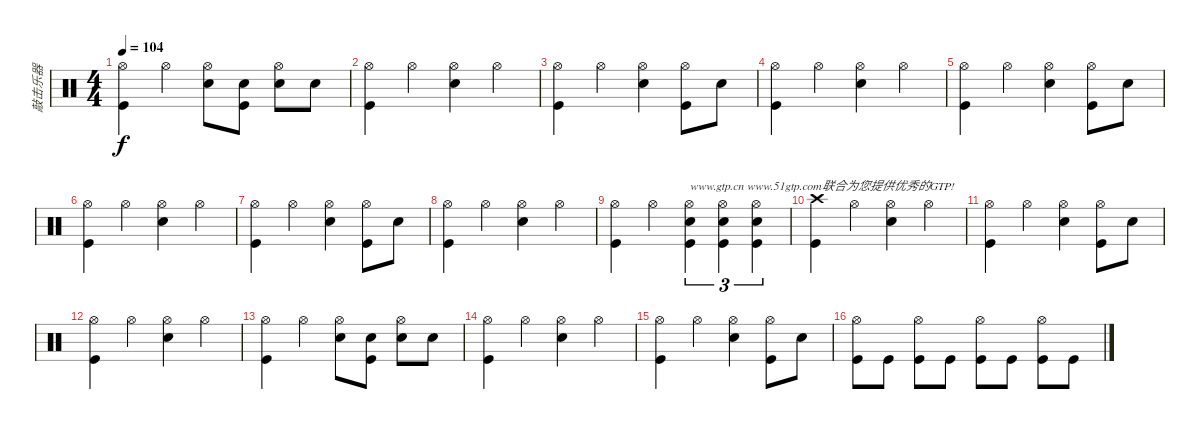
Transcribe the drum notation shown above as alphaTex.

\track ("敲击乐器" "敲击乐器") {instrument percussion}
\staff {score}
\articulation defaults
\ts (4 4)
\tempo 104
\clef neutral
\ks c
("Hi-Hat (open)" "Kick (hit)").4{dy f} "Hi-Hat (open)".4 ("Hi-Hat (open)" "Snare (hit) 2").8 ("Snare (hit) 2" "Kick (hit)").8 ("Hi-Hat (open)" "Snare (hit) 2").8 "Snare (hit) 2".8 |
("Hi-Hat (open)" "Kick (hit)").4 "Hi-Hat (open)".4 ("Hi-Hat (open)" "Snare (hit) 2").4 "Hi-Hat (open)".4 |
("Hi-Hat (open)" "Kick (hit)").4 "Hi-Hat (open)".4 ("Hi-Hat (open)" "Snare (hit) 2").4 ("Hi-Hat (open)" "Kick (hit)").8 "Electric Snare (hit)".8 |
("Hi-Hat (open)" "Kick (hit)").4 "Hi-Hat (open)".4 ("Hi-Hat (open)" "Snare (hit) 2").4 "Hi-Hat (open)".4 |
("Hi-Hat (open)" "Kick (hit)").4 "Hi-Hat (open)".4 ("Hi-Hat (open)" "Snare (hit) 2").4 ("Hi-Hat (open)" "Kick (hit)").8 "Electric Snare (hit)".8 |
("Hi-Hat (open)" "Kick (hit)").4 "Hi-Hat (open)".4 ("Hi-Hat (open)" "Snare (hit) 2").4 "Hi-Hat (open)".4 |
("Hi-Hat (open)" "Kick (hit)").4 "Hi-Hat (open)".4 ("Hi-Hat (open)" "Snare (hit) 2").4 ("Hi-Hat (open)" "Kick (hit)").8 "Electric Snare (hit)".8 |
("Hi-Hat (open)" "Kick (hit)").4 "Hi-Hat (open)".4 ("Hi-Hat (open)" "Snare (hit) 2").4 "Hi-Hat (open)".4 |
("Hi-Hat (open)" "Kick (hit)").4 "Hi-Hat (open)".4 ("Hi-Hat (open)" "Snare (hit) 2" "Kick (hit)").4{tu (3 2) txt "www.gtp.cn www.51gtp.com联合为您提供优秀的GTP!"} ("Hi-Hat (open)" "Snare (hit) 2" "Kick (hit)").4{tu (3 2)} ("Hi-Hat (open)" "Snare (hit) 2" "Kick (hit)").4{tu (3 2)} |
("Crash high (hit)" "Kick (hit)").4 "Hi-Hat (open)".4 ("Hi-Hat (open)" "Snare (hit) 2").4 "Hi-Hat (open)".4 |
("Hi-Hat (open)" "Kick (hit)").4 "Hi-Hat (open)".4 ("Hi-Hat (open)" "Snare (hit) 2").4 ("Hi-Hat (open)" "Kick (hit)").8 "Electric Snare (hit)".8 |
("Hi-Hat (open)" "Kick (hit)").4 "Hi-Hat (open)".4 ("Hi-Hat (open)" "Snare (hit) 2").4 "Hi-Hat (open)".4 |
("Hi-Hat (open)" "Kick (hit)").4 "Hi-Hat (open)".4 ("Hi-Hat (open)" "Snare (hit) 2").8 ("Snare (hit) 2" "Kick (hit)").8 ("Hi-Hat (open)" "Snare (hit) 2").8 "Snare (hit) 2".8 |
("Hi-Hat (open)" "Kick (hit)").4 "Hi-Hat (open)".4 ("Hi-Hat (open)" "Snare (hit) 2").4 "Hi-Hat (open)".4 |
("Hi-Hat (open)" "Kick (hit)").4 "Hi-Hat (open)".4 ("Hi-Hat (open)" "Snare (hit) 2").4 ("Hi-Hat (open)" "Kick (hit)").8 "Electric Snare (hit)".8 |
("Hi-Hat (open)" "Kick (hit)").8 "Kick (hit)".8 ("Hi-Hat (open)" "Kick (hit)").8 "Kick (hit)".8 ("Hi-Hat (open)" "Kick (hit)").8 "Kick (hit)".8 ("Hi-Hat (open)" "Kick (hit)").8 "Kick (hit)".8
